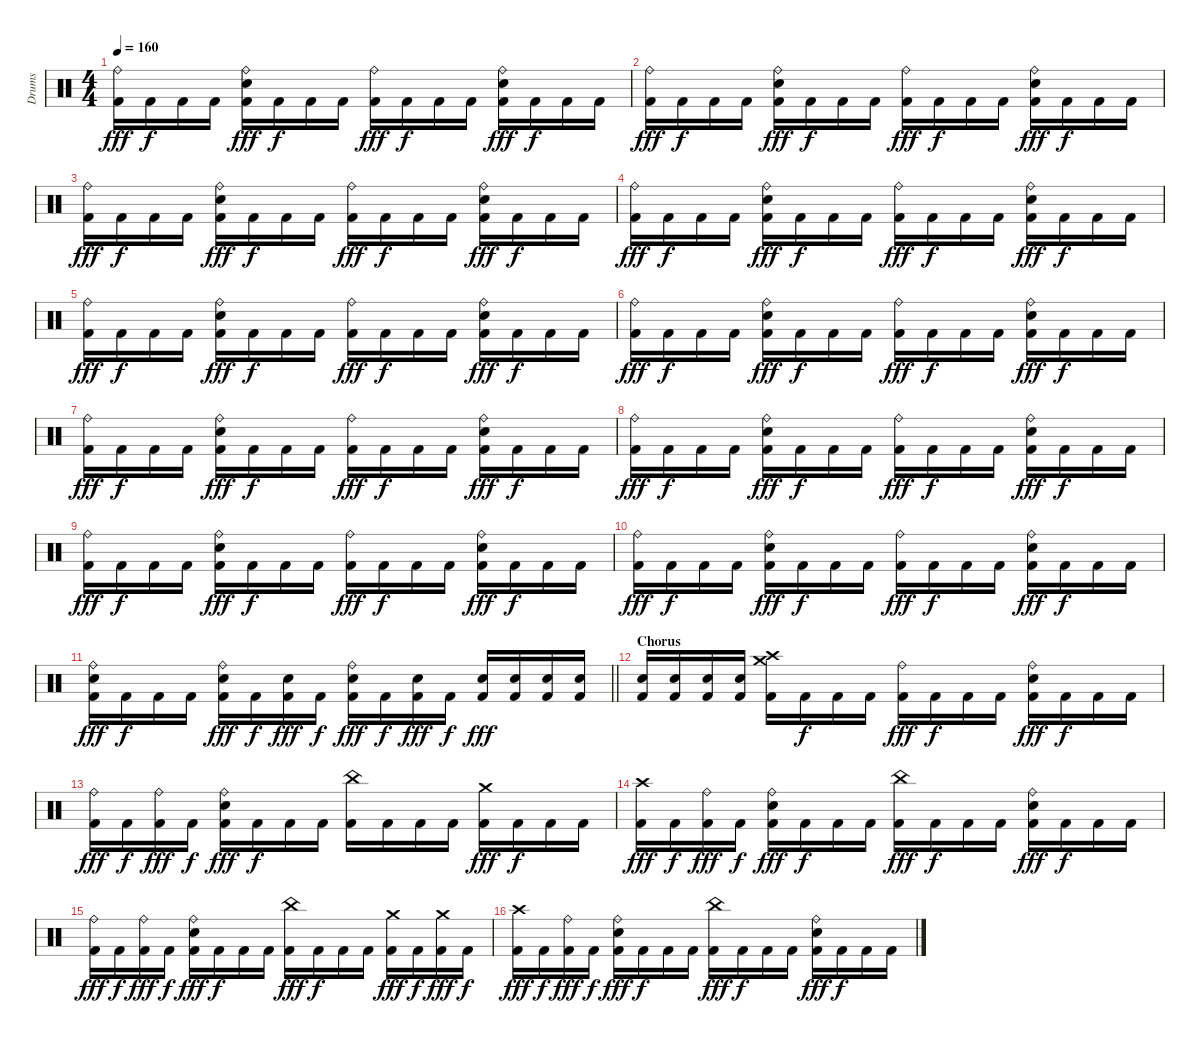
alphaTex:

\track ("Drums" "Drums") {instrument percussion}
\staff {score}
\articulation defaults
\ts (4 4)
\tempo 160
\clef neutral
\ks c
("Ride (bell)" "Kick (hit) 2").16{dy fff} "Kick (hit) 2".16{dy f} "Kick (hit) 2".16 "Kick (hit) 2".16 ("Ride (bell)" "Electric Snare (hit)" "Kick (hit) 2").16{dy fff} "Kick (hit) 2".16{dy f} "Kick (hit) 2".16 "Kick (hit) 2".16 ("Ride (bell)" "Kick (hit) 2").16{dy fff} "Kick (hit) 2".16{dy f} "Kick (hit) 2".16 "Kick (hit) 2".16 ("Ride (bell)" "Electric Snare (hit)" "Kick (hit) 2").16{dy fff} "Kick (hit) 2".16{dy f} "Kick (hit) 2".16 "Kick (hit) 2".16 |
("Ride (bell)" "Kick (hit) 2").16{dy fff} "Kick (hit) 2".16{dy f} "Kick (hit) 2".16 "Kick (hit) 2".16 ("Ride (bell)" "Electric Snare (hit)" "Kick (hit) 2").16{dy fff} "Kick (hit) 2".16{dy f} "Kick (hit) 2".16 "Kick (hit) 2".16 ("Ride (bell)" "Kick (hit) 2").16{dy fff} "Kick (hit) 2".16{dy f} "Kick (hit) 2".16 "Kick (hit) 2".16 ("Ride (bell)" "Electric Snare (hit)" "Kick (hit) 2").16{dy fff} "Kick (hit) 2".16{dy f} "Kick (hit) 2".16 "Kick (hit) 2".16 |
("Ride (bell)" "Kick (hit) 2").16{dy fff} "Kick (hit) 2".16{dy f} "Kick (hit) 2".16 "Kick (hit) 2".16 ("Ride (bell)" "Electric Snare (hit)" "Kick (hit) 2").16{dy fff} "Kick (hit) 2".16{dy f} "Kick (hit) 2".16 "Kick (hit) 2".16 ("Ride (bell)" "Kick (hit) 2").16{dy fff} "Kick (hit) 2".16{dy f} "Kick (hit) 2".16 "Kick (hit) 2".16 ("Ride (bell)" "Electric Snare (hit)" "Kick (hit) 2").16{dy fff} "Kick (hit) 2".16{dy f} "Kick (hit) 2".16 "Kick (hit) 2".16 |
("Ride (bell)" "Kick (hit) 2").16{dy fff} "Kick (hit) 2".16{dy f} "Kick (hit) 2".16 "Kick (hit) 2".16 ("Ride (bell)" "Electric Snare (hit)" "Kick (hit) 2").16{dy fff} "Kick (hit) 2".16{dy f} "Kick (hit) 2".16 "Kick (hit) 2".16 ("Ride (bell)" "Kick (hit) 2").16{dy fff} "Kick (hit) 2".16{dy f} "Kick (hit) 2".16 "Kick (hit) 2".16 ("Ride (bell)" "Electric Snare (hit)" "Kick (hit) 2").16{dy fff} "Kick (hit) 2".16{dy f} "Kick (hit) 2".16 "Kick (hit) 2".16 |
("Ride (bell)" "Kick (hit) 2").16{dy fff} "Kick (hit) 2".16{dy f} "Kick (hit) 2".16 "Kick (hit) 2".16 ("Ride (bell)" "Electric Snare (hit)" "Kick (hit) 2").16{dy fff} "Kick (hit) 2".16{dy f} "Kick (hit) 2".16 "Kick (hit) 2".16 ("Ride (bell)" "Kick (hit) 2").16{dy fff} "Kick (hit) 2".16{dy f} "Kick (hit) 2".16 "Kick (hit) 2".16 ("Ride (bell)" "Electric Snare (hit)" "Kick (hit) 2").16{dy fff} "Kick (hit) 2".16{dy f} "Kick (hit) 2".16 "Kick (hit) 2".16 |
("Ride (bell)" "Kick (hit) 2").16{dy fff} "Kick (hit) 2".16{dy f} "Kick (hit) 2".16 "Kick (hit) 2".16 ("Ride (bell)" "Electric Snare (hit)" "Kick (hit) 2").16{dy fff} "Kick (hit) 2".16{dy f} "Kick (hit) 2".16 "Kick (hit) 2".16 ("Ride (bell)" "Kick (hit) 2").16{dy fff} "Kick (hit) 2".16{dy f} "Kick (hit) 2".16 "Kick (hit) 2".16 ("Ride (bell)" "Electric Snare (hit)" "Kick (hit) 2").16{dy fff} "Kick (hit) 2".16{dy f} "Kick (hit) 2".16 "Kick (hit) 2".16 |
("Ride (bell)" "Kick (hit) 2").16{dy fff} "Kick (hit) 2".16{dy f} "Kick (hit) 2".16 "Kick (hit) 2".16 ("Ride (bell)" "Electric Snare (hit)" "Kick (hit) 2").16{dy fff} "Kick (hit) 2".16{dy f} "Kick (hit) 2".16 "Kick (hit) 2".16 ("Ride (bell)" "Kick (hit) 2").16{dy fff} "Kick (hit) 2".16{dy f} "Kick (hit) 2".16 "Kick (hit) 2".16 ("Ride (bell)" "Electric Snare (hit)" "Kick (hit) 2").16{dy fff} "Kick (hit) 2".16{dy f} "Kick (hit) 2".16 "Kick (hit) 2".16 |
("Ride (bell)" "Kick (hit) 2").16{dy fff} "Kick (hit) 2".16{dy f} "Kick (hit) 2".16 "Kick (hit) 2".16 ("Ride (bell)" "Electric Snare (hit)" "Kick (hit) 2").16{dy fff} "Kick (hit) 2".16{dy f} "Kick (hit) 2".16 "Kick (hit) 2".16 ("Ride (bell)" "Kick (hit) 2").16{dy fff} "Kick (hit) 2".16{dy f} "Kick (hit) 2".16 "Kick (hit) 2".16 ("Ride (bell)" "Electric Snare (hit)" "Kick (hit) 2").16{dy fff} "Kick (hit) 2".16{dy f} "Kick (hit) 2".16 "Kick (hit) 2".16 |
("Ride (bell)" "Kick (hit) 2").16{dy fff} "Kick (hit) 2".16{dy f} "Kick (hit) 2".16 "Kick (hit) 2".16 ("Ride (bell)" "Electric Snare (hit)" "Kick (hit) 2").16{dy fff} "Kick (hit) 2".16{dy f} "Kick (hit) 2".16 "Kick (hit) 2".16 ("Ride (bell)" "Kick (hit) 2").16{dy fff} "Kick (hit) 2".16{dy f} "Kick (hit) 2".16 "Kick (hit) 2".16 ("Ride (bell)" "Electric Snare (hit)" "Kick (hit) 2").16{dy fff} "Kick (hit) 2".16{dy f} "Kick (hit) 2".16 "Kick (hit) 2".16 |
("Ride (bell)" "Kick (hit) 2").16{dy fff} "Kick (hit) 2".16{dy f} "Kick (hit) 2".16 "Kick (hit) 2".16 ("Ride (bell)" "Electric Snare (hit)" "Kick (hit) 2").16{dy fff} "Kick (hit) 2".16{dy f} "Kick (hit) 2".16 "Kick (hit) 2".16 ("Ride (bell)" "Kick (hit) 2").16{dy fff} "Kick (hit) 2".16{dy f} "Kick (hit) 2".16 "Kick (hit) 2".16 ("Ride (bell)" "Electric Snare (hit)" "Kick (hit) 2").16{dy fff} "Kick (hit) 2".16{dy f} "Kick (hit) 2".16 "Kick (hit) 2".16 |
\barLineRight lightlight
("Ride (bell)" "Electric Snare (hit)" "Kick (hit) 2").16{dy fff} "Kick (hit) 2".16{dy f} "Kick (hit) 2".16 "Kick (hit) 2".16 ("Ride (bell)" "Electric Snare (hit)" "Kick (hit) 2").16{dy fff} "Kick (hit) 2".16{dy f} ("Electric Snare (hit)" "Kick (hit) 2").16{dy fff} "Kick (hit) 2".16{dy f} ("Ride (bell)" "Electric Snare (hit)" "Kick (hit) 2").16{dy fff} "Kick (hit) 2".16{dy f} ("Electric Snare (hit)" "Kick (hit) 2").16{dy fff} "Kick (hit) 2".16{dy f} ("Electric Snare (hit)" "Kick (hit) 2").16{dy fff} ("Electric Snare (hit)" "Kick (hit) 2").16 ("Electric Snare (hit)" "Kick (hit) 2").16 ("Electric Snare (hit)" "Kick (hit) 2").16 |
\section ("" "Chorus")
("Electric Snare (hit)" "Kick (hit) 2").16 ("Electric Snare (hit)" "Kick (hit) 2").16 ("Electric Snare (hit)" "Kick (hit) 2").16 ("Electric Snare (hit)" "Kick (hit) 2").16 ("Crash high (hit)" "Crash medium (hit)" "Kick (hit) 2").16 "Kick (hit) 2".16{dy f} "Kick (hit) 2".16 "Kick (hit) 2".16 ("Ride (bell)" "Kick (hit) 2").16{dy fff} "Kick (hit) 2".16{dy f} "Kick (hit) 2".16 "Kick (hit) 2".16 ("Ride (bell)" "Electric Snare (hit)" "Kick (hit) 2").16{dy fff} "Kick (hit) 2".16{dy f} "Kick (hit) 2".16 "Kick (hit) 2".16 |
("Ride (bell)" "Kick (hit) 2").16{dy fff} "Kick (hit) 2".16{dy f} ("Ride (bell)" "Kick (hit) 2").16{dy fff} "Kick (hit) 2".16{dy f} ("Ride (bell)" "Electric Snare (hit)" "Kick (hit) 2").16{dy fff} "Kick (hit) 2".16{dy f} "Kick (hit) 2".16 "Kick (hit) 2".16 ("China (hit)" "Kick (hit) 2").16 "Kick (hit) 2".16 "Kick (hit) 2".16 "Kick (hit) 2".16 ("Crash medium (hit)" "Kick (hit) 2").16{dy fff} "Kick (hit) 2".16{dy f} "Kick (hit) 2".16 "Kick (hit) 2".16 |
("Crash high (hit)" "Kick (hit) 2").16{dy fff} "Kick (hit) 2".16{dy f} ("Ride (bell)" "Kick (hit) 2").16{dy fff} "Kick (hit) 2".16{dy f} ("Ride (bell)" "Electric Snare (hit)" "Kick (hit) 2").16{dy fff} "Kick (hit) 2".16{dy f} "Kick (hit) 2".16 "Kick (hit) 2".16 ("China (hit)" "Kick (hit) 2").16{dy fff} "Kick (hit) 2".16{dy f} "Kick (hit) 2".16 "Kick (hit) 2".16 ("Ride (bell)" "Electric Snare (hit)" "Kick (hit) 2").16{dy fff} "Kick (hit) 2".16{dy f} "Kick (hit) 2".16 "Kick (hit) 2".16 |
("Ride (bell)" "Kick (hit) 2").16{dy fff} "Kick (hit) 2".16{dy f} ("Ride (bell)" "Kick (hit) 2").16{dy fff} "Kick (hit) 2".16{dy f} ("Ride (bell)" "Electric Snare (hit)" "Kick (hit) 2").16{dy fff} "Kick (hit) 2".16{dy f} "Kick (hit) 2".16 "Kick (hit) 2".16 ("China (hit)" "Kick (hit) 2").16{dy fff} "Kick (hit) 2".16{dy f} "Kick (hit) 2".16 "Kick (hit) 2".16 ("Crash medium (hit)" "Kick (hit) 2").16{dy fff} "Kick (hit) 2".16{dy f} ("Crash medium (hit)" "Kick (hit) 2").16{dy fff} "Kick (hit) 2".16{dy f} |
("Crash high (hit)" "Kick (hit) 2").16{dy fff} "Kick (hit) 2".16{dy f} ("Ride (bell)" "Kick (hit) 2").16{dy fff} "Kick (hit) 2".16{dy f} ("Ride (bell)" "Electric Snare (hit)" "Kick (hit) 2").16{dy fff} "Kick (hit) 2".16{dy f} "Kick (hit) 2".16 "Kick (hit) 2".16 ("China (hit)" "Kick (hit) 2").16{dy fff} "Kick (hit) 2".16{dy f} "Kick (hit) 2".16 "Kick (hit) 2".16 ("Ride (bell)" "Electric Snare (hit)" "Kick (hit) 2").16{dy fff} "Kick (hit) 2".16{dy f} "Kick (hit) 2".16 "Kick (hit) 2".16
